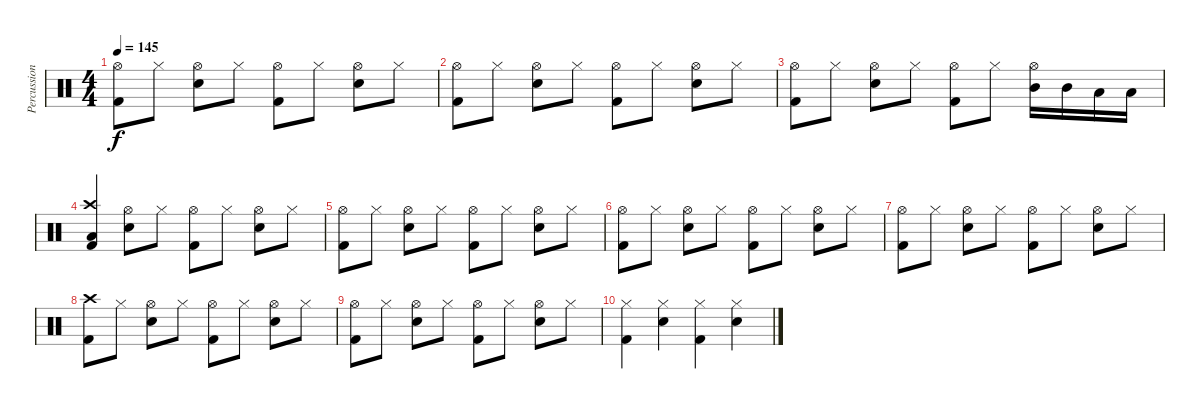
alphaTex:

\track ("Percussion" "Percussion") {instrument percussion bank 1}
\staff {score}
\articulation defaults
\ts (4 4)
\tempo 145
\clef neutral
\ks c
("Kick (hit) 2" "Hi-Hat (open)").8{dy f} "Hi-Hat (closed)".8 ("Electric Snare (hit)" "Hi-Hat (open)").8 "Hi-Hat (closed)".8 ("Kick (hit) 2" "Hi-Hat (open)").8 "Hi-Hat (closed)".8 ("Electric Snare (hit)" "Hi-Hat (open)").8 "Hi-Hat (closed)".8 |
("Kick (hit) 2" "Hi-Hat (open)").8 "Hi-Hat (closed)".8 ("Electric Snare (hit)" "Hi-Hat (open)").8 "Hi-Hat (closed)".8 ("Kick (hit) 2" "Hi-Hat (open)").8 "Hi-Hat (closed)".8 ("Electric Snare (hit)" "Hi-Hat (open)").8 "Hi-Hat (closed)".8 |
("Kick (hit) 2" "Hi-Hat (open)").8 "Hi-Hat (closed)".8 ("Electric Snare (hit)" "Hi-Hat (open)").8 "Hi-Hat (closed)".8 ("Kick (hit) 2" "Hi-Hat (open)").8 "Hi-Hat (closed)".8 ("Mid Tom (hit)" "Hi-Hat (open)").16 "Mid Tom (hit)".16 "Low Tom (hit)".16 "Low Tom (hit)".16 |
("Crash high (hit)" "Low Floor Tom (hit)" "Kick (hit) 2").4 ("Electric Snare (hit)" "Hi-Hat (open)").8 "Hi-Hat (closed)".8 ("Kick (hit) 2" "Hi-Hat (open)").8 "Hi-Hat (closed)".8 ("Electric Snare (hit)" "Hi-Hat (open)").8 "Hi-Hat (closed)".8 |
("Kick (hit) 2" "Hi-Hat (open)").8 "Hi-Hat (closed)".8 ("Electric Snare (hit)" "Hi-Hat (open)").8 "Hi-Hat (closed)".8 ("Kick (hit) 2" "Hi-Hat (open)").8 "Hi-Hat (closed)".8 ("Electric Snare (hit)" "Hi-Hat (open)").8 "Hi-Hat (closed)".8 |
("Kick (hit) 2" "Hi-Hat (open)").8 "Hi-Hat (closed)".8 ("Electric Snare (hit)" "Hi-Hat (open)").8 "Hi-Hat (closed)".8 ("Kick (hit) 2" "Hi-Hat (open)").8 "Hi-Hat (closed)".8 ("Electric Snare (hit)" "Hi-Hat (open)").8 "Hi-Hat (closed)".8 |
("Kick (hit) 2" "Hi-Hat (open)").8 "Hi-Hat (closed)".8 ("Electric Snare (hit)" "Hi-Hat (open)").8 "Hi-Hat (closed)".8 ("Kick (hit) 2" "Hi-Hat (open)").8 "Hi-Hat (closed)".8 ("Electric Snare (hit)" "Hi-Hat (open)").8 "Hi-Hat (closed)".8 |
("Kick (hit) 2" "Crash high (hit)").8 "Hi-Hat (closed)".8 ("Electric Snare (hit)" "Hi-Hat (open)").8 "Hi-Hat (closed)".8 ("Kick (hit) 2" "Hi-Hat (open)").8 "Hi-Hat (closed)".8 ("Electric Snare (hit)" "Hi-Hat (open)").8 "Hi-Hat (closed)".8 |
("Kick (hit) 2" "Hi-Hat (open)").8 "Hi-Hat (closed)".8 ("Electric Snare (hit)" "Hi-Hat (open)").8 "Hi-Hat (closed)".8 ("Kick (hit) 2" "Hi-Hat (open)").8 "Hi-Hat (closed)".8 ("Electric Snare (hit)" "Hi-Hat (open)").8 "Hi-Hat (closed)".8 |
("Kick (hit) 2" "Hi-Hat (closed)").4 ("Electric Snare (hit)" "Hi-Hat (closed)").4 ("Kick (hit) 2" "Hi-Hat (closed)").4 ("Electric Snare (hit)" "Hi-Hat (closed)").4
